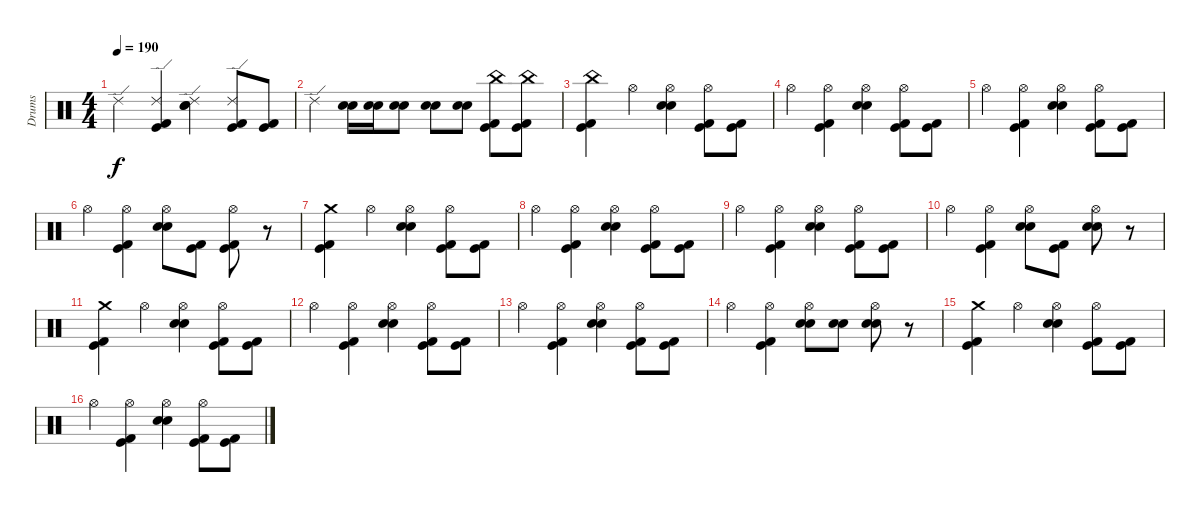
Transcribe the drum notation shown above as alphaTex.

\track ("Drums" "Drums") {instrument percussion}
\staff {score}
\articulation defaults
\ts (4 4)
\tempo 190
\clef neutral
\ks c "Ride (edge) 2".4{dy f}
("Ride (edge) 2" "Kick (hit) 2" "Kick (hit)").4 ("Ride (edge) 2" "Snare (hit) 2" "Snare (hit) 2").4 ("Ride (edge) 2" "Kick (hit) 2" "Kick (hit)").8 ("Kick (hit) 2" "Kick (hit)").8 |
"Ride (edge) 2".4 ("Snare (hit) 2" "Snare (hit) 2").16 ("Snare (hit) 2" "Snare (hit) 2").16 ("Snare (hit) 2" "Snare (hit) 2").8 ("Snare (hit) 2" "Snare (hit) 2").8 ("Snare (hit) 2" "Snare (hit) 2").8 ("China (hit)" "Kick (hit) 2" "Kick (hit)").8 ("China (hit)" "Kick (hit) 2" "Kick (hit)").8 |
("China (hit)" "Kick (hit) 2" "Kick (hit)").4 "Hi-Hat (open)".4 ("Hi-Hat (open)" "Snare (hit) 2" "Snare (hit) 2").4 ("Hi-Hat (open)" "Kick (hit) 2" "Kick (hit)").8 ("Kick (hit) 2" "Kick (hit)").8 |
"Hi-Hat (open)".4 ("Hi-Hat (open)" "Kick (hit) 2" "Kick (hit)").4 ("Hi-Hat (open)" "Snare (hit) 2" "Snare (hit) 2").4 ("Hi-Hat (open)" "Kick (hit) 2" "Kick (hit)").8 ("Kick (hit) 2" "Kick (hit)").8 |
"Hi-Hat (open)".4 ("Hi-Hat (open)" "Kick (hit) 2" "Kick (hit)").4 ("Hi-Hat (open)" "Snare (hit) 2" "Snare (hit) 2").4 ("Hi-Hat (open)" "Kick (hit) 2" "Kick (hit)").8 ("Kick (hit) 2" "Kick (hit)").8 |
"Hi-Hat (open)".4 ("Hi-Hat (open)" "Kick (hit) 2" "Kick (hit)").4 ("Hi-Hat (open)" "Snare (hit) 2" "Snare (hit) 2").8 ("Kick (hit) 2" "Kick (hit)").8 ("Hi-Hat (open)" "Kick (hit) 2" "Kick (hit)").8 r.8 |
("Crash medium (hit)" "Kick (hit) 2" "Kick (hit)").4 "Hi-Hat (open)".4 ("Hi-Hat (open)" "Snare (hit) 2" "Snare (hit) 2").4 ("Hi-Hat (open)" "Kick (hit) 2" "Kick (hit)").8 ("Kick (hit) 2" "Kick (hit)").8 |
"Hi-Hat (open)".4 ("Hi-Hat (open)" "Kick (hit) 2" "Kick (hit)").4 ("Hi-Hat (open)" "Snare (hit) 2" "Snare (hit) 2").4 ("Hi-Hat (open)" "Kick (hit) 2" "Kick (hit)").8 ("Kick (hit) 2" "Kick (hit)").8 |
"Hi-Hat (open)".4 ("Hi-Hat (open)" "Kick (hit) 2" "Kick (hit)").4 ("Hi-Hat (open)" "Snare (hit) 2" "Snare (hit) 2").4 ("Hi-Hat (open)" "Kick (hit) 2" "Kick (hit)").8 ("Kick (hit) 2" "Kick (hit)").8 |
"Hi-Hat (open)".4 ("Hi-Hat (open)" "Kick (hit) 2" "Kick (hit)").4 ("Hi-Hat (open)" "Snare (hit) 2" "Snare (hit) 2").8 ("Kick (hit) 2" "Kick (hit)").8 ("Hi-Hat (open)" "Snare (hit) 2" "Snare (hit) 2").8 r.8 |
("Crash medium (hit)" "Kick (hit) 2" "Kick (hit)").4 "Hi-Hat (open)".4 ("Hi-Hat (open)" "Snare (hit) 2" "Snare (hit) 2").4 ("Hi-Hat (open)" "Kick (hit) 2" "Kick (hit)").8 ("Kick (hit) 2" "Kick (hit)").8 |
"Hi-Hat (open)".4 ("Hi-Hat (open)" "Kick (hit) 2" "Kick (hit)").4 ("Hi-Hat (open)" "Snare (hit) 2" "Snare (hit) 2").4 ("Hi-Hat (open)" "Kick (hit) 2" "Kick (hit)").8 ("Kick (hit) 2" "Kick (hit)").8 |
"Hi-Hat (open)".4 ("Hi-Hat (open)" "Kick (hit) 2" "Kick (hit)").4 ("Hi-Hat (open)" "Snare (hit) 2" "Snare (hit) 2").4 ("Hi-Hat (open)" "Kick (hit) 2" "Kick (hit)").8 ("Kick (hit) 2" "Kick (hit)").8 |
"Hi-Hat (open)".4 ("Hi-Hat (open)" "Kick (hit) 2" "Kick (hit)").4 ("Hi-Hat (open)" "Snare (hit) 2" "Snare (hit) 2").8 ("Snare (hit) 2" "Snare (hit) 2").8 ("Hi-Hat (open)" "Snare (hit) 2" "Snare (hit) 2").8 r.8 |
("Crash medium (hit)" "Kick (hit) 2" "Kick (hit)").4 "Hi-Hat (open)".4 ("Hi-Hat (open)" "Snare (hit) 2" "Snare (hit) 2").4 ("Hi-Hat (open)" "Kick (hit) 2" "Kick (hit)").8 ("Kick (hit) 2" "Kick (hit)").8 |
"Hi-Hat (open)".4 ("Hi-Hat (open)" "Kick (hit) 2" "Kick (hit)").4 ("Hi-Hat (open)" "Snare (hit) 2" "Snare (hit) 2").4 ("Hi-Hat (open)" "Kick (hit) 2" "Kick (hit)").8 ("Kick (hit) 2" "Kick (hit)").8
